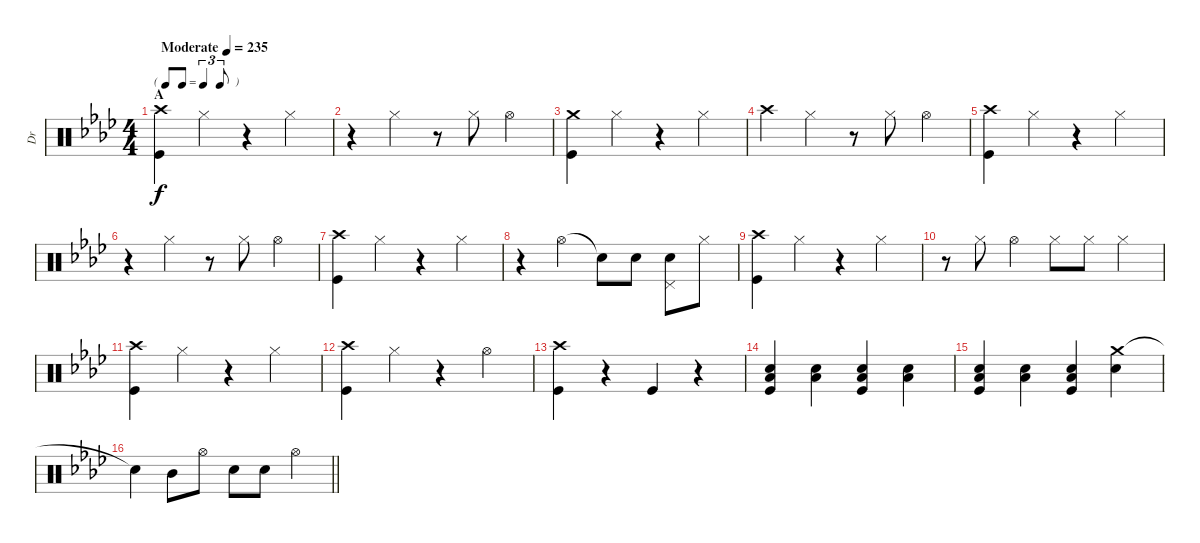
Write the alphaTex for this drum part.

\track ("Dr" "Dr") {instrument percussion}
\staff {score}
\articulation defaults
\ts (4 4)
\tf triplet8th
\section ("" "A")
\tempo (235 "Moderate")
\clef neutral
\ks ab
("Crash high (hit)" "Kick (hit)").4{dy f} "Hi-Hat (closed)".4 r.4 "Hi-Hat (closed)".4 |
r.4 "Hi-Hat (closed)".4 r.8 "Hi-Hat (closed)".8 "Hi-Hat (open)".4 |
("Crash medium (hit)" "Kick (hit)").4 "Hi-Hat (closed)".4 r.4 "Hi-Hat (closed)".4 |
"Crash high (hit)".4 "Hi-Hat (closed)".4 r.8 "Hi-Hat (closed)".8 "Hi-Hat (open)".4 |
("Crash high (hit)" "Kick (hit)").4 "Hi-Hat (closed)".4 r.4 "Hi-Hat (closed)".4 |
r.4 "Hi-Hat (closed)".4 r.8 "Hi-Hat (closed)".8 "Hi-Hat (open)".4 |
("Crash high (hit)" "Kick (hit)").4 "Hi-Hat (closed)".4 r.4 "Hi-Hat (closed)".4 |
r.4 "Hi-Hat (open)".4 "Snare (hit)"{t}.8 "Electric Snare (hit)".8 ("Electric Snare (hit)" "Pedal Hi-Hat (hit)").8 "Hi-Hat (closed)".8 |
("Crash high (hit)" "Kick (hit)").4 "Hi-Hat (closed)".4 r.4 "Hi-Hat (closed)".4 |
r.8 "Hi-Hat (closed)".8 "Hi-Hat (open)".4 "Hi-Hat (closed)".8 "Hi-Hat (closed)".8 "Hi-Hat (closed)".4 |
("Crash high (hit)" "Kick (hit)").4 "Hi-Hat (closed)".4 r.4 "Hi-Hat (closed)".4 |
("Crash high (hit)" "Kick (hit)").4 "Hi-Hat (closed)".4 r.4 "Hi-Hat (open)".4 |
("Crash high (hit)" "Kick (hit)").4 r.4 "Kick (hit)".4 r.4 |
("Electric Snare (hit)" "Low Floor Tom (hit)" "Kick (hit)").4 ("Electric Snare (hit)" "Low Floor Tom (hit)").4 ("Electric Snare (hit)" "Low Floor Tom (hit)" "Kick (hit)").4 ("Electric Snare (hit)" "Low Floor Tom (hit)").4 |
("Electric Snare (hit)" "Low Floor Tom (hit)" "Kick (hit)").4 ("Electric Snare (hit)" "Low Floor Tom (hit)").4 ("Electric Snare (hit)" "Low Floor Tom (hit)" "Kick (hit)").4 ("Crash medium (hit)" "Electric Snare (hit)").4 |
\barLineRight lightlight "Snare (hit)"{t}.4 "Mid Tom (hit)".8 "Hi-Hat (open)".8 "Electric Snare (hit)".8 "Electric Snare (hit)".8 "Hi-Hat (open)".4
